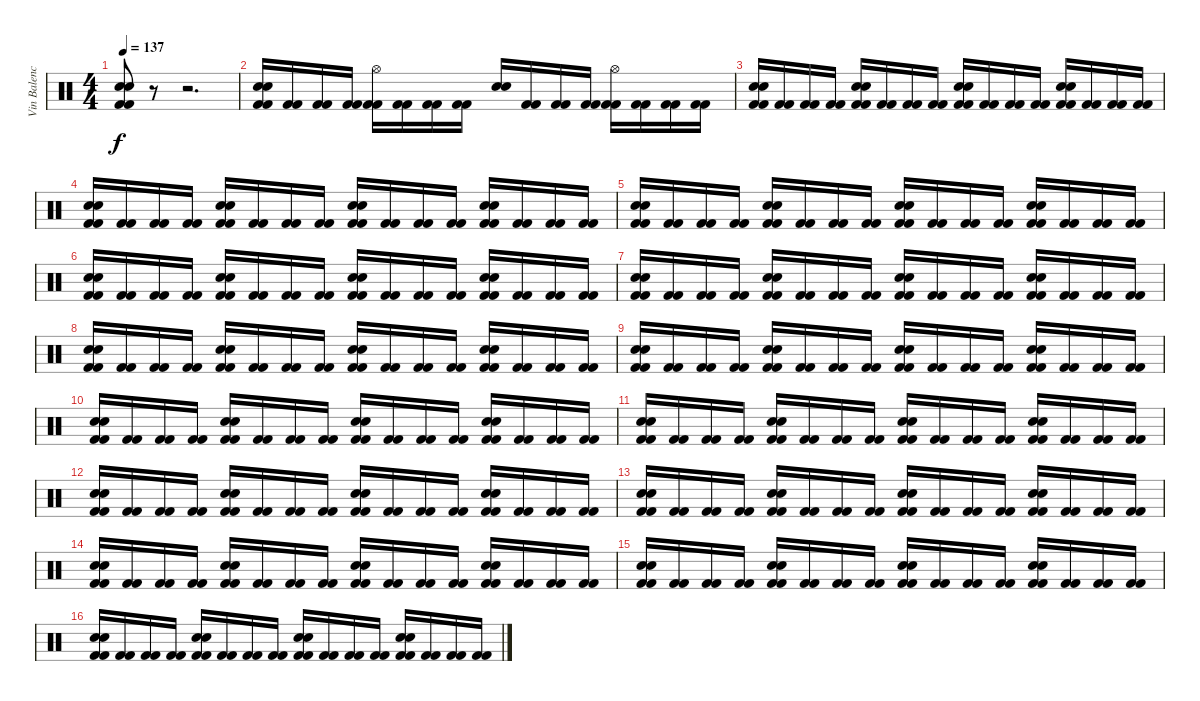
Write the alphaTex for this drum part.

\track ("Vin Balencia (bateria)" "Vin Balenc") {instrument percussion}
\staff {score}
\articulation defaults
\ts (4 4)
\tempo 137
\clef neutral
\ks c
("Electric Snare (hit)" "Electric Snare (hit)" "Kick (hit) 2" "Kick (hit) 2").8{dy f} r.8 r.2{d} |
("Electric Snare (hit)" "Electric Snare (hit)" "Kick (hit) 2" "Kick (hit) 2").16 ("Kick (hit) 2" "Kick (hit) 2").16 ("Kick (hit) 2" "Kick (hit) 2").16 ("Kick (hit) 2" "Kick (hit) 2").16 ("Hi-Hat (open)" "Kick (hit) 2" "Kick (hit) 2").16 ("Kick (hit) 2" "Kick (hit) 2").16 ("Kick (hit) 2" "Kick (hit) 2").16 ("Kick (hit) 2" "Kick (hit) 2").16 ("Electric Snare (hit)" "Electric Snare (hit)").16 ("Kick (hit) 2" "Kick (hit) 2").16 ("Kick (hit) 2" "Kick (hit) 2").16 ("Kick (hit) 2" "Kick (hit) 2").16 ("Hi-Hat (open)" "Kick (hit) 2" "Kick (hit) 2").16 ("Kick (hit) 2" "Kick (hit) 2").16 ("Kick (hit) 2" "Kick (hit) 2").16 ("Kick (hit) 2" "Kick (hit) 2").16 |
("Electric Snare (hit)" "Electric Snare (hit)" "Kick (hit) 2" "Kick (hit) 2").16 ("Kick (hit) 2" "Kick (hit) 2").16 ("Kick (hit) 2" "Kick (hit) 2").16 ("Kick (hit) 2" "Kick (hit) 2").16 ("Electric Snare (hit)" "Electric Snare (hit)" "Kick (hit) 2" "Kick (hit) 2").16 ("Kick (hit) 2" "Kick (hit) 2").16 ("Kick (hit) 2" "Kick (hit) 2").16 ("Kick (hit) 2" "Kick (hit) 2").16 ("Electric Snare (hit)" "Electric Snare (hit)" "Kick (hit) 2" "Kick (hit) 2").16 ("Kick (hit) 2" "Kick (hit) 2").16 ("Kick (hit) 2" "Kick (hit) 2").16 ("Kick (hit) 2" "Kick (hit) 2").16 ("Electric Snare (hit)" "Electric Snare (hit)" "Kick (hit) 2" "Kick (hit) 2").16 ("Kick (hit) 2" "Kick (hit) 2").16 ("Kick (hit) 2" "Kick (hit) 2").16 ("Kick (hit) 2" "Kick (hit) 2").16 |
("Electric Snare (hit)" "Electric Snare (hit)" "Kick (hit) 2" "Kick (hit) 2").16 ("Kick (hit) 2" "Kick (hit) 2").16 ("Kick (hit) 2" "Kick (hit) 2").16 ("Kick (hit) 2" "Kick (hit) 2").16 ("Electric Snare (hit)" "Electric Snare (hit)" "Kick (hit) 2" "Kick (hit) 2").16 ("Kick (hit) 2" "Kick (hit) 2").16 ("Kick (hit) 2" "Kick (hit) 2").16 ("Kick (hit) 2" "Kick (hit) 2").16 ("Electric Snare (hit)" "Electric Snare (hit)" "Kick (hit) 2" "Kick (hit) 2").16 ("Kick (hit) 2" "Kick (hit) 2").16 ("Kick (hit) 2" "Kick (hit) 2").16 ("Kick (hit) 2" "Kick (hit) 2").16 ("Electric Snare (hit)" "Electric Snare (hit)" "Kick (hit) 2" "Kick (hit) 2").16 ("Kick (hit) 2" "Kick (hit) 2").16 ("Kick (hit) 2" "Kick (hit) 2").16 ("Kick (hit) 2" "Kick (hit) 2").16 |
("Electric Snare (hit)" "Electric Snare (hit)" "Kick (hit) 2" "Kick (hit) 2").16 ("Kick (hit) 2" "Kick (hit) 2").16 ("Kick (hit) 2" "Kick (hit) 2").16 ("Kick (hit) 2" "Kick (hit) 2").16 ("Electric Snare (hit)" "Electric Snare (hit)" "Kick (hit) 2" "Kick (hit) 2").16 ("Kick (hit) 2" "Kick (hit) 2").16 ("Kick (hit) 2" "Kick (hit) 2").16 ("Kick (hit) 2" "Kick (hit) 2").16 ("Electric Snare (hit)" "Electric Snare (hit)" "Kick (hit) 2" "Kick (hit) 2").16 ("Kick (hit) 2" "Kick (hit) 2").16 ("Kick (hit) 2" "Kick (hit) 2").16 ("Kick (hit) 2" "Kick (hit) 2").16 ("Electric Snare (hit)" "Electric Snare (hit)" "Kick (hit) 2" "Kick (hit) 2").16 ("Kick (hit) 2" "Kick (hit) 2").16 ("Kick (hit) 2" "Kick (hit) 2").16 ("Kick (hit) 2" "Kick (hit) 2").16 |
("Electric Snare (hit)" "Electric Snare (hit)" "Kick (hit) 2" "Kick (hit) 2").16 ("Kick (hit) 2" "Kick (hit) 2").16 ("Kick (hit) 2" "Kick (hit) 2").16 ("Kick (hit) 2" "Kick (hit) 2").16 ("Electric Snare (hit)" "Electric Snare (hit)" "Kick (hit) 2" "Kick (hit) 2").16 ("Kick (hit) 2" "Kick (hit) 2").16 ("Kick (hit) 2" "Kick (hit) 2").16 ("Kick (hit) 2" "Kick (hit) 2").16 ("Electric Snare (hit)" "Electric Snare (hit)" "Kick (hit) 2" "Kick (hit) 2").16 ("Kick (hit) 2" "Kick (hit) 2").16 ("Kick (hit) 2" "Kick (hit) 2").16 ("Kick (hit) 2" "Kick (hit) 2").16 ("Electric Snare (hit)" "Electric Snare (hit)" "Kick (hit) 2" "Kick (hit) 2").16 ("Kick (hit) 2" "Kick (hit) 2").16 ("Kick (hit) 2" "Kick (hit) 2").16 ("Kick (hit) 2" "Kick (hit) 2").16 |
("Electric Snare (hit)" "Electric Snare (hit)" "Kick (hit) 2" "Kick (hit) 2").16 ("Kick (hit) 2" "Kick (hit) 2").16 ("Kick (hit) 2" "Kick (hit) 2").16 ("Kick (hit) 2" "Kick (hit) 2").16 ("Electric Snare (hit)" "Electric Snare (hit)" "Kick (hit) 2" "Kick (hit) 2").16 ("Kick (hit) 2" "Kick (hit) 2").16 ("Kick (hit) 2" "Kick (hit) 2").16 ("Kick (hit) 2" "Kick (hit) 2").16 ("Electric Snare (hit)" "Electric Snare (hit)" "Kick (hit) 2" "Kick (hit) 2").16 ("Kick (hit) 2" "Kick (hit) 2").16 ("Kick (hit) 2" "Kick (hit) 2").16 ("Kick (hit) 2" "Kick (hit) 2").16 ("Electric Snare (hit)" "Electric Snare (hit)" "Kick (hit) 2" "Kick (hit) 2").16 ("Kick (hit) 2" "Kick (hit) 2").16 ("Kick (hit) 2" "Kick (hit) 2").16 ("Kick (hit) 2" "Kick (hit) 2").16 |
("Electric Snare (hit)" "Electric Snare (hit)" "Kick (hit) 2" "Kick (hit) 2").16 ("Kick (hit) 2" "Kick (hit) 2").16 ("Kick (hit) 2" "Kick (hit) 2").16 ("Kick (hit) 2" "Kick (hit) 2").16 ("Electric Snare (hit)" "Electric Snare (hit)" "Kick (hit) 2" "Kick (hit) 2").16 ("Kick (hit) 2" "Kick (hit) 2").16 ("Kick (hit) 2" "Kick (hit) 2").16 ("Kick (hit) 2" "Kick (hit) 2").16 ("Electric Snare (hit)" "Electric Snare (hit)" "Kick (hit) 2" "Kick (hit) 2").16 ("Kick (hit) 2" "Kick (hit) 2").16 ("Kick (hit) 2" "Kick (hit) 2").16 ("Kick (hit) 2" "Kick (hit) 2").16 ("Electric Snare (hit)" "Electric Snare (hit)" "Kick (hit) 2" "Kick (hit) 2").16 ("Kick (hit) 2" "Kick (hit) 2").16 ("Kick (hit) 2" "Kick (hit) 2").16 ("Kick (hit) 2" "Kick (hit) 2").16 |
("Electric Snare (hit)" "Electric Snare (hit)" "Kick (hit) 2" "Kick (hit) 2").16 ("Kick (hit) 2" "Kick (hit) 2").16 ("Kick (hit) 2" "Kick (hit) 2").16 ("Kick (hit) 2" "Kick (hit) 2").16 ("Electric Snare (hit)" "Electric Snare (hit)" "Kick (hit) 2" "Kick (hit) 2").16 ("Kick (hit) 2" "Kick (hit) 2").16 ("Kick (hit) 2" "Kick (hit) 2").16 ("Kick (hit) 2" "Kick (hit) 2").16 ("Electric Snare (hit)" "Electric Snare (hit)" "Kick (hit) 2" "Kick (hit) 2").16 ("Kick (hit) 2" "Kick (hit) 2").16 ("Kick (hit) 2" "Kick (hit) 2").16 ("Kick (hit) 2" "Kick (hit) 2").16 ("Electric Snare (hit)" "Electric Snare (hit)" "Kick (hit) 2" "Kick (hit) 2").16 ("Kick (hit) 2" "Kick (hit) 2").16 ("Kick (hit) 2" "Kick (hit) 2").16 ("Kick (hit) 2" "Kick (hit) 2").16 |
("Electric Snare (hit)" "Electric Snare (hit)" "Kick (hit) 2" "Kick (hit) 2").16 ("Kick (hit) 2" "Kick (hit) 2").16 ("Kick (hit) 2" "Kick (hit) 2").16 ("Kick (hit) 2" "Kick (hit) 2").16 ("Electric Snare (hit)" "Electric Snare (hit)" "Kick (hit) 2" "Kick (hit) 2").16 ("Kick (hit) 2" "Kick (hit) 2").16 ("Kick (hit) 2" "Kick (hit) 2").16 ("Kick (hit) 2" "Kick (hit) 2").16 ("Electric Snare (hit)" "Electric Snare (hit)" "Kick (hit) 2" "Kick (hit) 2").16 ("Kick (hit) 2" "Kick (hit) 2").16 ("Kick (hit) 2" "Kick (hit) 2").16 ("Kick (hit) 2" "Kick (hit) 2").16 ("Electric Snare (hit)" "Electric Snare (hit)" "Kick (hit) 2" "Kick (hit) 2").16 ("Kick (hit) 2" "Kick (hit) 2").16 ("Kick (hit) 2" "Kick (hit) 2").16 ("Kick (hit) 2" "Kick (hit) 2").16 |
("Electric Snare (hit)" "Electric Snare (hit)" "Kick (hit) 2" "Kick (hit) 2").16 ("Kick (hit) 2" "Kick (hit) 2").16 ("Kick (hit) 2" "Kick (hit) 2").16 ("Kick (hit) 2" "Kick (hit) 2").16 ("Electric Snare (hit)" "Electric Snare (hit)" "Kick (hit) 2" "Kick (hit) 2").16 ("Kick (hit) 2" "Kick (hit) 2").16 ("Kick (hit) 2" "Kick (hit) 2").16 ("Kick (hit) 2" "Kick (hit) 2").16 ("Electric Snare (hit)" "Electric Snare (hit)" "Kick (hit) 2" "Kick (hit) 2").16 ("Kick (hit) 2" "Kick (hit) 2").16 ("Kick (hit) 2" "Kick (hit) 2").16 ("Kick (hit) 2" "Kick (hit) 2").16 ("Electric Snare (hit)" "Electric Snare (hit)" "Kick (hit) 2" "Kick (hit) 2").16 ("Kick (hit) 2" "Kick (hit) 2").16 ("Kick (hit) 2" "Kick (hit) 2").16 ("Kick (hit) 2" "Kick (hit) 2").16 |
("Electric Snare (hit)" "Electric Snare (hit)" "Kick (hit) 2" "Kick (hit) 2").16 ("Kick (hit) 2" "Kick (hit) 2").16 ("Kick (hit) 2" "Kick (hit) 2").16 ("Kick (hit) 2" "Kick (hit) 2").16 ("Electric Snare (hit)" "Electric Snare (hit)" "Kick (hit) 2" "Kick (hit) 2").16 ("Kick (hit) 2" "Kick (hit) 2").16 ("Kick (hit) 2" "Kick (hit) 2").16 ("Kick (hit) 2" "Kick (hit) 2").16 ("Electric Snare (hit)" "Electric Snare (hit)" "Kick (hit) 2" "Kick (hit) 2").16 ("Kick (hit) 2" "Kick (hit) 2").16 ("Kick (hit) 2" "Kick (hit) 2").16 ("Kick (hit) 2" "Kick (hit) 2").16 ("Electric Snare (hit)" "Electric Snare (hit)" "Kick (hit) 2" "Kick (hit) 2").16 ("Kick (hit) 2" "Kick (hit) 2").16 ("Kick (hit) 2" "Kick (hit) 2").16 ("Kick (hit) 2" "Kick (hit) 2").16 |
("Electric Snare (hit)" "Electric Snare (hit)" "Kick (hit) 2" "Kick (hit) 2").16 ("Kick (hit) 2" "Kick (hit) 2").16 ("Kick (hit) 2" "Kick (hit) 2").16 ("Kick (hit) 2" "Kick (hit) 2").16 ("Electric Snare (hit)" "Electric Snare (hit)" "Kick (hit) 2" "Kick (hit) 2").16 ("Kick (hit) 2" "Kick (hit) 2").16 ("Kick (hit) 2" "Kick (hit) 2").16 ("Kick (hit) 2" "Kick (hit) 2").16 ("Electric Snare (hit)" "Electric Snare (hit)" "Kick (hit) 2" "Kick (hit) 2").16 ("Kick (hit) 2" "Kick (hit) 2").16 ("Kick (hit) 2" "Kick (hit) 2").16 ("Kick (hit) 2" "Kick (hit) 2").16 ("Electric Snare (hit)" "Electric Snare (hit)" "Kick (hit) 2" "Kick (hit) 2").16 ("Kick (hit) 2" "Kick (hit) 2").16 ("Kick (hit) 2" "Kick (hit) 2").16 ("Kick (hit) 2" "Kick (hit) 2").16 |
("Electric Snare (hit)" "Electric Snare (hit)" "Kick (hit) 2" "Kick (hit) 2").16 ("Kick (hit) 2" "Kick (hit) 2").16 ("Kick (hit) 2" "Kick (hit) 2").16 ("Kick (hit) 2" "Kick (hit) 2").16 ("Electric Snare (hit)" "Electric Snare (hit)" "Kick (hit) 2" "Kick (hit) 2").16 ("Kick (hit) 2" "Kick (hit) 2").16 ("Kick (hit) 2" "Kick (hit) 2").16 ("Kick (hit) 2" "Kick (hit) 2").16 ("Electric Snare (hit)" "Electric Snare (hit)" "Kick (hit) 2" "Kick (hit) 2").16 ("Kick (hit) 2" "Kick (hit) 2").16 ("Kick (hit) 2" "Kick (hit) 2").16 ("Kick (hit) 2" "Kick (hit) 2").16 ("Electric Snare (hit)" "Electric Snare (hit)" "Kick (hit) 2" "Kick (hit) 2").16 ("Kick (hit) 2" "Kick (hit) 2").16 ("Kick (hit) 2" "Kick (hit) 2").16 ("Kick (hit) 2" "Kick (hit) 2").16 |
("Electric Snare (hit)" "Electric Snare (hit)" "Kick (hit) 2" "Kick (hit) 2").16 ("Kick (hit) 2" "Kick (hit) 2").16 ("Kick (hit) 2" "Kick (hit) 2").16 ("Kick (hit) 2" "Kick (hit) 2").16 ("Electric Snare (hit)" "Electric Snare (hit)" "Kick (hit) 2" "Kick (hit) 2").16 ("Kick (hit) 2" "Kick (hit) 2").16 ("Kick (hit) 2" "Kick (hit) 2").16 ("Kick (hit) 2" "Kick (hit) 2").16 ("Electric Snare (hit)" "Electric Snare (hit)" "Kick (hit) 2" "Kick (hit) 2").16 ("Kick (hit) 2" "Kick (hit) 2").16 ("Kick (hit) 2" "Kick (hit) 2").16 ("Kick (hit) 2" "Kick (hit) 2").16 ("Electric Snare (hit)" "Electric Snare (hit)" "Kick (hit) 2" "Kick (hit) 2").16 ("Kick (hit) 2" "Kick (hit) 2").16 ("Kick (hit) 2" "Kick (hit) 2").16 ("Kick (hit) 2" "Kick (hit) 2").16 |
("Electric Snare (hit)" "Electric Snare (hit)" "Kick (hit) 2" "Kick (hit) 2").16 ("Kick (hit) 2" "Kick (hit) 2").16 ("Kick (hit) 2" "Kick (hit) 2").16 ("Kick (hit) 2" "Kick (hit) 2").16 ("Electric Snare (hit)" "Electric Snare (hit)" "Kick (hit) 2" "Kick (hit) 2").16 ("Kick (hit) 2" "Kick (hit) 2").16 ("Kick (hit) 2" "Kick (hit) 2").16 ("Kick (hit) 2" "Kick (hit) 2").16 ("Electric Snare (hit)" "Electric Snare (hit)" "Kick (hit) 2" "Kick (hit) 2").16 ("Kick (hit) 2" "Kick (hit) 2").16 ("Kick (hit) 2" "Kick (hit) 2").16 ("Kick (hit) 2" "Kick (hit) 2").16 ("Electric Snare (hit)" "Electric Snare (hit)" "Kick (hit) 2" "Kick (hit) 2").16 ("Kick (hit) 2" "Kick (hit) 2").16 ("Kick (hit) 2" "Kick (hit) 2").16 ("Kick (hit) 2" "Kick (hit) 2").16
